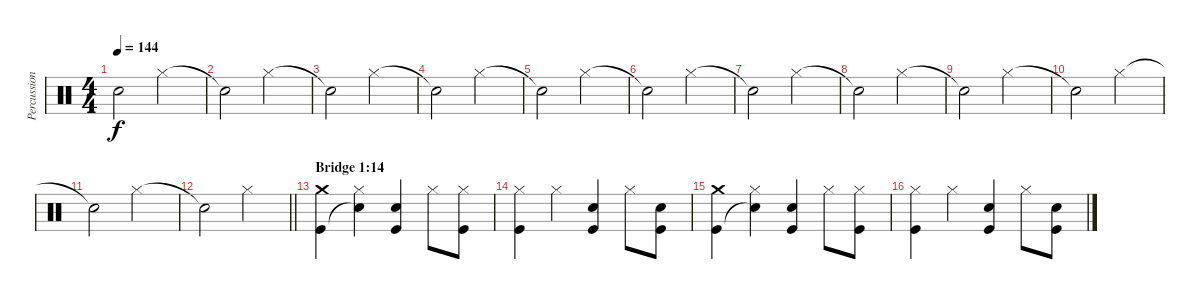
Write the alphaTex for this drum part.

\track ("Percussion" "Percussion") {instrument percussion}
\staff {score}
\articulation defaults
\ts (4 4)
\tempo 144
\clef neutral
\ks c "Snare (hit)"{t}.2{dy f} "Hi-Hat (closed)".2
|
"Snare (hit)"{t}.2 "Hi-Hat (closed)".2 |
"Snare (hit)"{t}.2 "Hi-Hat (closed)".2 |
"Snare (hit)"{t}.2 "Hi-Hat (closed)".2 |
"Snare (hit)"{t}.2 "Hi-Hat (closed)".2 |
"Snare (hit)"{t}.2 "Hi-Hat (closed)".2 |
"Snare (hit)"{t}.2 "Hi-Hat (closed)".2 |
"Snare (hit)"{t}.2 "Hi-Hat (closed)".2 |
"Snare (hit)"{t}.2 "Hi-Hat (closed)".2 |
"Snare (hit)"{t}.2 "Hi-Hat (closed)".2 |
"Snare (hit)"{t}.2 "Hi-Hat (closed)".2 |
\barLineRight lightlight "Snare (hit)"{t}.2 "Hi-Hat (closed)".2
|
\section ("" "Bridge 1:14")
("Crash medium (hit)" "Kick (hit)").4 ("Hi-Hat (closed)" "Snare (hit)"{t}).4 ("Electric Snare (hit)" "Kick (hit)").4 "Hi-Hat (closed)".8 ("Hi-Hat (closed)" "Kick (hit)").8 |
("Hi-Hat (closed)" "Kick (hit)").4 "Hi-Hat (closed)".4 ("Electric Snare (hit)" "Kick (hit)").4 "Hi-Hat (closed)".8 ("Electric Snare (hit)" "Kick (hit)").8 |
("Crash medium (hit)" "Kick (hit)").4 ("Hi-Hat (closed)" "Snare (hit)"{t}).4 ("Electric Snare (hit)" "Kick (hit)").4 "Hi-Hat (closed)".8 ("Hi-Hat (closed)" "Kick (hit)").8 |
("Hi-Hat (closed)" "Kick (hit)").4 "Hi-Hat (closed)".4 ("Electric Snare (hit)" "Kick (hit)").4 "Hi-Hat (closed)".8 ("Electric Snare (hit)" "Kick (hit)").8
